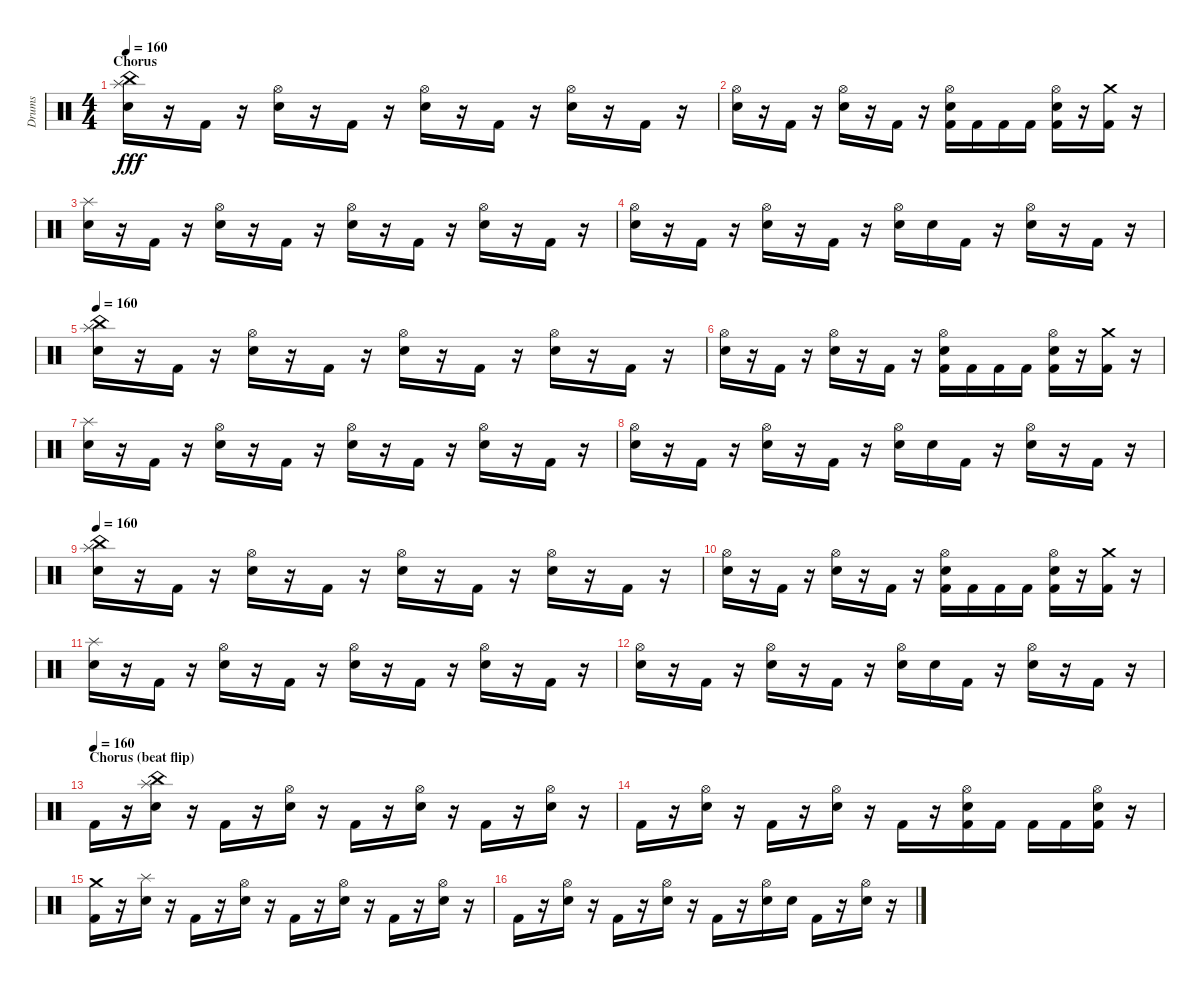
\track ("Drums" "Drums") {instrument percussion}
\staff {score}
\articulation defaults
\ts (4 4)
\section ("" "Chorus")
\tempo 160
\clef neutral
\ks c
("Snare (hit) 2" "Splash (hit)" "China (hit)").16{dy fff} r.16 "Kick (hit) 2".16 r.16 ("Snare (hit) 2" "Hi-Hat (open)").16 r.16 "Kick (hit) 2".16 r.16 ("Snare (hit) 2" "Hi-Hat (open)").16 r.16 "Kick (hit) 2".16 r.16 ("Snare (hit) 2" "Hi-Hat (open)").16 r.16 "Kick (hit) 2".16 r.16 |
("Snare (hit) 2" "Hi-Hat (open)").16 r.16 "Kick (hit) 2".16 r.16 ("Snare (hit) 2" "Hi-Hat (open)").16 r.16 "Kick (hit) 2".16 r.16 ("Kick (hit) 2" "Snare (hit) 2" "Hi-Hat (open)").16 "Kick (hit) 2".16 "Kick (hit) 2".16 "Kick (hit) 2".16 ("Kick (hit) 2" "Snare (hit) 2" "Hi-Hat (open)").16 r.16 ("Kick (hit) 2" "Crash medium (hit)").16 r.16 |
("Snare (hit) 2" "Splash (hit)").16 r.16 "Kick (hit) 2".16 r.16 ("Snare (hit) 2" "Hi-Hat (open)").16 r.16 "Kick (hit) 2".16 r.16 ("Snare (hit) 2" "Hi-Hat (open)").16 r.16 "Kick (hit) 2".16 r.16 ("Snare (hit) 2" "Hi-Hat (open)").16 r.16 "Kick (hit) 2".16 r.16 |
("Snare (hit) 2" "Hi-Hat (open)").16 r.16 "Kick (hit) 2".16 r.16 ("Snare (hit) 2" "Hi-Hat (open)").16 r.16 "Kick (hit) 2".16 r.16 ("Snare (hit) 2" "Hi-Hat (open)").16 "Snare (hit) 2".16 "Kick (hit) 2".16 r.16 ("Snare (hit) 2" "Hi-Hat (open)").16 r.16 "Kick (hit) 2".16 r.16 |
\tempo 160
("Snare (hit) 2" "Splash (hit)" "China (hit)").16 r.16 "Kick (hit) 2".16 r.16 ("Snare (hit) 2" "Hi-Hat (open)").16 r.16 "Kick (hit) 2".16 r.16 ("Snare (hit) 2" "Hi-Hat (open)").16 r.16 "Kick (hit) 2".16 r.16 ("Snare (hit) 2" "Hi-Hat (open)").16 r.16 "Kick (hit) 2".16 r.16 |
("Snare (hit) 2" "Hi-Hat (open)").16 r.16 "Kick (hit) 2".16 r.16 ("Snare (hit) 2" "Hi-Hat (open)").16 r.16 "Kick (hit) 2".16 r.16 ("Kick (hit) 2" "Snare (hit) 2" "Hi-Hat (open)").16 "Kick (hit) 2".16 "Kick (hit) 2".16 "Kick (hit) 2".16 ("Kick (hit) 2" "Snare (hit) 2" "Hi-Hat (open)").16 r.16 ("Kick (hit) 2" "Crash medium (hit)").16 r.16 |
("Snare (hit) 2" "Splash (hit)").16 r.16 "Kick (hit) 2".16 r.16 ("Snare (hit) 2" "Hi-Hat (open)").16 r.16 "Kick (hit) 2".16 r.16 ("Snare (hit) 2" "Hi-Hat (open)").16 r.16 "Kick (hit) 2".16 r.16 ("Snare (hit) 2" "Hi-Hat (open)").16 r.16 "Kick (hit) 2".16 r.16 |
("Snare (hit) 2" "Hi-Hat (open)").16 r.16 "Kick (hit) 2".16 r.16 ("Snare (hit) 2" "Hi-Hat (open)").16 r.16 "Kick (hit) 2".16 r.16 ("Snare (hit) 2" "Hi-Hat (open)").16 "Snare (hit) 2".16 "Kick (hit) 2".16 r.16 ("Snare (hit) 2" "Hi-Hat (open)").16 r.16 "Kick (hit) 2".16 r.16 |
\tempo 160
("Snare (hit) 2" "Splash (hit)" "China (hit)").16 r.16 "Kick (hit) 2".16 r.16 ("Snare (hit) 2" "Hi-Hat (open)").16 r.16 "Kick (hit) 2".16 r.16 ("Snare (hit) 2" "Hi-Hat (open)").16 r.16 "Kick (hit) 2".16 r.16 ("Snare (hit) 2" "Hi-Hat (open)").16 r.16 "Kick (hit) 2".16 r.16 |
("Snare (hit) 2" "Hi-Hat (open)").16 r.16 "Kick (hit) 2".16 r.16 ("Snare (hit) 2" "Hi-Hat (open)").16 r.16 "Kick (hit) 2".16 r.16 ("Kick (hit) 2" "Snare (hit) 2" "Hi-Hat (open)").16 "Kick (hit) 2".16 "Kick (hit) 2".16 "Kick (hit) 2".16 ("Kick (hit) 2" "Snare (hit) 2" "Hi-Hat (open)").16 r.16 ("Kick (hit) 2" "Crash medium (hit)").16 r.16 |
("Snare (hit) 2" "Splash (hit)").16 r.16 "Kick (hit) 2".16 r.16 ("Snare (hit) 2" "Hi-Hat (open)").16 r.16 "Kick (hit) 2".16 r.16 ("Snare (hit) 2" "Hi-Hat (open)").16 r.16 "Kick (hit) 2".16 r.16 ("Snare (hit) 2" "Hi-Hat (open)").16 r.16 "Kick (hit) 2".16 r.16 |
("Snare (hit) 2" "Hi-Hat (open)").16 r.16 "Kick (hit) 2".16 r.16 ("Snare (hit) 2" "Hi-Hat (open)").16 r.16 "Kick (hit) 2".16 r.16 ("Snare (hit) 2" "Hi-Hat (open)").16 "Snare (hit) 2".16 "Kick (hit) 2".16 r.16 ("Snare (hit) 2" "Hi-Hat (open)").16 r.16 "Kick (hit) 2".16 r.16 |
\section ("" "Chorus (beat flip)")
\tempo (160)
"Kick (hit) 2".16 r.16 ("Snare (hit) 2" "Splash (hit)" "China (hit)").16 r.16 "Kick (hit) 2".16 r.16 ("Snare (hit) 2" "Hi-Hat (open)").16 r.16 "Kick (hit) 2".16 r.16 ("Snare (hit) 2" "Hi-Hat (open)").16 r.16 "Kick (hit) 2".16 r.16 ("Snare (hit) 2" "Hi-Hat (open)").16 r.16 |
"Kick (hit) 2".16 r.16 ("Snare (hit) 2" "Hi-Hat (open)").16 r.16 "Kick (hit) 2".16 r.16 ("Snare (hit) 2" "Hi-Hat (open)").16 r.16 "Kick (hit) 2".16 r.16 ("Kick (hit) 2" "Snare (hit) 2" "Hi-Hat (open)").16 "Kick (hit) 2".16 "Kick (hit) 2".16 "Kick (hit) 2".16 ("Kick (hit) 2" "Snare (hit) 2" "Hi-Hat (open)").16 r.16 |
("Kick (hit) 2" "Crash medium (hit)").16 r.16 ("Snare (hit) 2" "Splash (hit)").16 r.16 "Kick (hit) 2".16 r.16 ("Snare (hit) 2" "Hi-Hat (open)").16 r.16 "Kick (hit) 2".16 r.16 ("Snare (hit) 2" "Hi-Hat (open)").16 r.16 "Kick (hit) 2".16 r.16 ("Snare (hit) 2" "Hi-Hat (open)").16 r.16 |
"Kick (hit) 2".16 r.16 ("Snare (hit) 2" "Hi-Hat (open)").16 r.16 "Kick (hit) 2".16 r.16 ("Snare (hit) 2" "Hi-Hat (open)").16 r.16 "Kick (hit) 2".16 r.16 ("Snare (hit) 2" "Hi-Hat (open)").16 "Snare (hit) 2".16 "Kick (hit) 2".16 r.16 ("Snare (hit) 2" "Hi-Hat (open)").16 r.16
